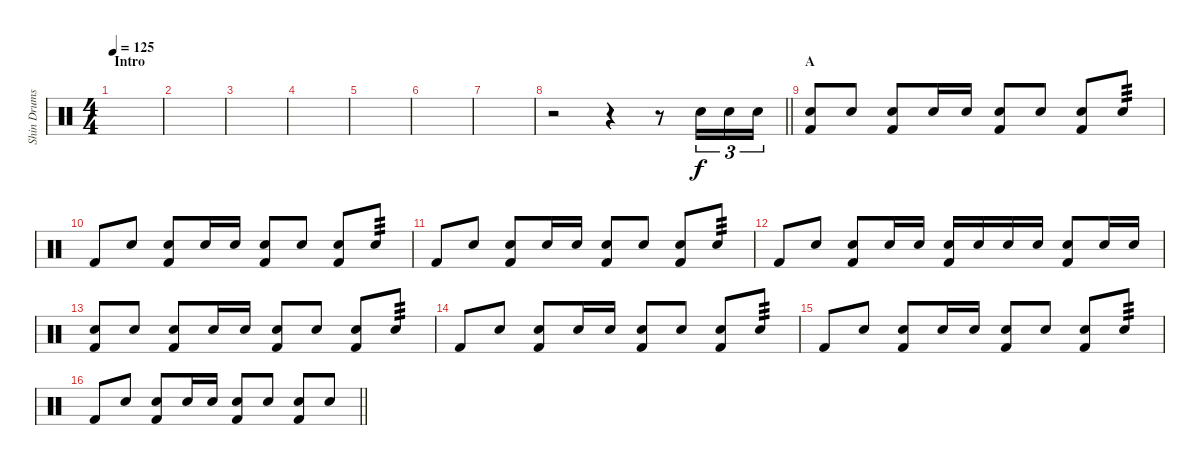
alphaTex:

\track ("Shin Drums" "Shin Drums") {instrument percussion}
\staff {score}
\articulation defaults
\ts (4 4)
\section ("" "Intro")
\tempo 125
\clef neutral
\ks c
|
|
|
|
|
|
|
\barLineRight lightlight
r.2 r.4 r.8 "Snare (hit) 2".16{tu (3 2)} "Snare (hit) 2".16{tu (3 2)} "Snare (hit) 2".16{tu (3 2)} |
\section ("" "A")
("Snare (hit) 2" "Kick (hit) 2").8 "Snare (hit) 2".8 ("Snare (hit) 2" "Kick (hit) 2").8 "Snare (hit) 2".16 "Snare (hit) 2".16 ("Snare (hit) 2" "Kick (hit) 2").8 "Snare (hit) 2".8 ("Snare (hit) 2" "Kick (hit) 2").8 "Snare (hit) 2".8{tp 3} |
"Kick (hit) 2".8 "Snare (hit) 2".8 ("Snare (hit) 2" "Kick (hit) 2").8 "Snare (hit) 2".16 "Snare (hit) 2".16 ("Snare (hit) 2" "Kick (hit) 2").8 "Snare (hit) 2".8 ("Snare (hit) 2" "Kick (hit) 2").8 "Snare (hit) 2".8{tp 3} |
"Kick (hit) 2".8 "Snare (hit) 2".8 ("Snare (hit) 2" "Kick (hit) 2").8 "Snare (hit) 2".16 "Snare (hit) 2".16 ("Snare (hit) 2" "Kick (hit) 2").8 "Snare (hit) 2".8 ("Snare (hit) 2" "Kick (hit) 2").8 "Snare (hit) 2".8{tp 3} |
"Kick (hit) 2".8 "Snare (hit) 2".8 ("Snare (hit) 2" "Kick (hit) 2").8 "Snare (hit) 2".16 "Snare (hit) 2".16 ("Snare (hit) 2" "Kick (hit) 2").16 "Snare (hit) 2".16 "Snare (hit) 2".16 "Snare (hit) 2".16 ("Snare (hit) 2" "Kick (hit) 2").8 "Snare (hit) 2".16 "Snare (hit) 2".16 |
("Snare (hit) 2" "Kick (hit) 2").8 "Snare (hit) 2".8 ("Snare (hit) 2" "Kick (hit) 2").8 "Snare (hit) 2".16 "Snare (hit) 2".16 ("Snare (hit) 2" "Kick (hit) 2").8 "Snare (hit) 2".8 ("Snare (hit) 2" "Kick (hit) 2").8 "Snare (hit) 2".8{tp 3} |
"Kick (hit) 2".8 "Snare (hit) 2".8 ("Snare (hit) 2" "Kick (hit) 2").8 "Snare (hit) 2".16 "Snare (hit) 2".16 ("Snare (hit) 2" "Kick (hit) 2").8 "Snare (hit) 2".8 ("Snare (hit) 2" "Kick (hit) 2").8 "Snare (hit) 2".8{tp 3} |
"Kick (hit) 2".8 "Snare (hit) 2".8 ("Snare (hit) 2" "Kick (hit) 2").8 "Snare (hit) 2".16 "Snare (hit) 2".16 ("Snare (hit) 2" "Kick (hit) 2").8 "Snare (hit) 2".8 ("Snare (hit) 2" "Kick (hit) 2").8 "Snare (hit) 2".8{tp 3} |
\barLineRight lightlight "Kick (hit) 2".8 "Snare (hit) 2".8
("Snare (hit) 2" "Kick (hit) 2").8 "Snare (hit) 2".16 "Snare (hit) 2".16 ("Snare (hit) 2" "Kick (hit) 2").8 "Snare (hit) 2".8 ("Snare (hit) 2" "Kick (hit) 2").8 "Snare (hit) 2".8
